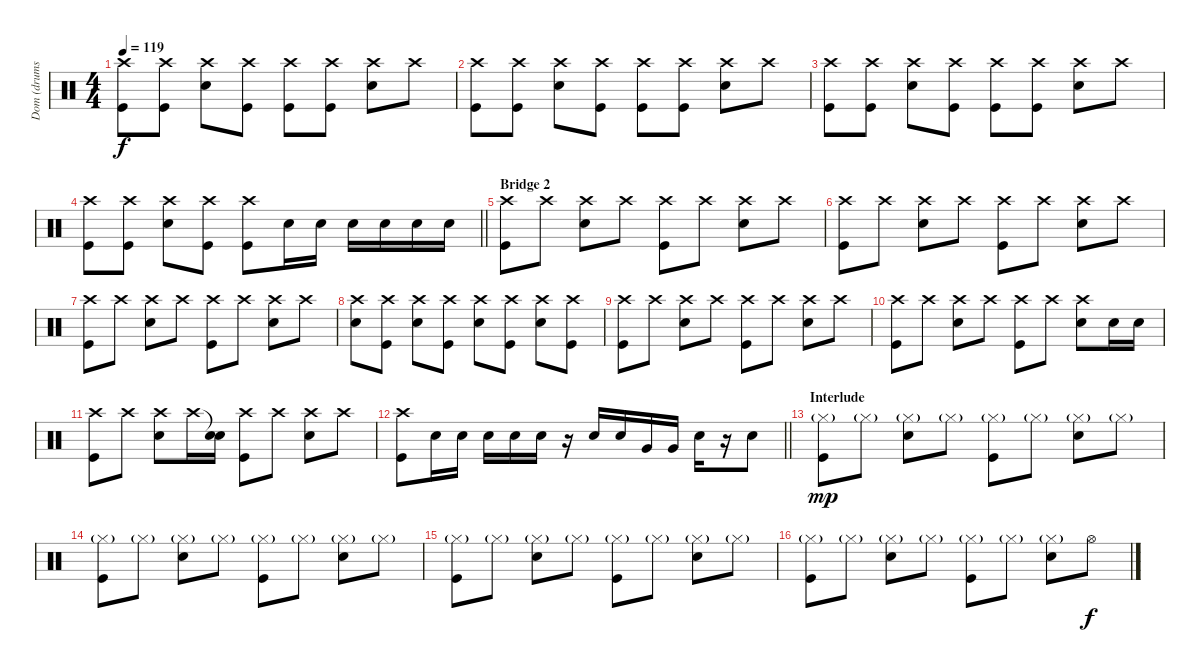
\track ("Dom (drums)" "Dom (drums") {instrument percussion}
\staff {score}
\articulation defaults
\ts (4 4)
\tempo 119
\clef neutral
\ks c
("Crash high (hit)" "Kick (hit)").8{dy f} ("Crash high (hit)" "Kick (hit)").8 ("Crash high (hit)" "Snare (hit) 2").8 ("Crash high (hit)" "Kick (hit)").8 ("Crash high (hit)" "Kick (hit)").8 ("Crash high (hit)" "Kick (hit)").8 ("Crash high (hit)" "Snare (hit) 2").8 "Crash high (hit)".8 |
("Crash high (hit)" "Kick (hit)").8 ("Crash high (hit)" "Kick (hit)").8 ("Crash high (hit)" "Snare (hit) 2").8 ("Crash high (hit)" "Kick (hit)").8 ("Crash high (hit)" "Kick (hit)").8 ("Crash high (hit)" "Kick (hit)").8 ("Crash high (hit)" "Snare (hit) 2").8 "Crash high (hit)".8 |
("Crash high (hit)" "Kick (hit)").8 ("Crash high (hit)" "Kick (hit)").8 ("Crash high (hit)" "Snare (hit) 2").8 ("Crash high (hit)" "Kick (hit)").8 ("Crash high (hit)" "Kick (hit)").8 ("Crash high (hit)" "Kick (hit)").8 ("Crash high (hit)" "Snare (hit) 2").8 "Crash high (hit)".8 |
\barLineRight lightlight
("Crash high (hit)" "Kick (hit)").8 ("Crash high (hit)" "Kick (hit)").8 ("Crash high (hit)" "Snare (hit) 2").8 ("Crash high (hit)" "Kick (hit)").8 ("Crash high (hit)" "Kick (hit)").8 "Snare (hit) 2".16 "Snare (hit) 2".16 "Snare (hit) 2".16 "Snare (hit) 2".16 "Snare (hit) 2".16 "Snare (hit) 2".16 |
\section ("" "Bridge 2")
("Crash high (hit)" "Kick (hit)").8 "Crash high (hit)".8 ("Crash high (hit)" "Snare (hit) 2").8 "Crash high (hit)".8 ("Crash high (hit)" "Kick (hit)").8 "Crash high (hit)".8 ("Crash high (hit)" "Snare (hit) 2").8 "Crash high (hit)".8 |
("Crash high (hit)" "Kick (hit)").8 "Crash high (hit)".8 ("Crash high (hit)" "Snare (hit) 2").8 "Crash high (hit)".8 ("Crash high (hit)" "Kick (hit)").8 "Crash high (hit)".8 ("Crash high (hit)" "Snare (hit) 2").8 "Crash high (hit)".8 |
("Crash high (hit)" "Kick (hit)").8 "Crash high (hit)".8 ("Crash high (hit)" "Snare (hit) 2").8 "Crash high (hit)".8 ("Crash high (hit)" "Kick (hit)").8 "Crash high (hit)".8 ("Crash high (hit)" "Snare (hit) 2").8 "Crash high (hit)".8 |
("Crash high (hit)" "Snare (hit) 2").8 ("Crash high (hit)" "Kick (hit)").8 ("Crash high (hit)" "Snare (hit) 2").8 ("Crash high (hit)" "Kick (hit)").8 ("Crash high (hit)" "Snare (hit) 2").8 ("Crash high (hit)" "Kick (hit)").8 ("Crash high (hit)" "Snare (hit) 2").8 ("Crash high (hit)" "Kick (hit)").8 |
("Crash high (hit)" "Kick (hit)").8 "Crash high (hit)".8 ("Crash high (hit)" "Snare (hit) 2").8 "Crash high (hit)".8 ("Crash high (hit)" "Kick (hit)").8 "Crash high (hit)".8 ("Crash high (hit)" "Snare (hit) 2").8 "Crash high (hit)".8 |
("Crash high (hit)" "Kick (hit)").8 "Crash high (hit)".8 ("Crash high (hit)" "Snare (hit) 2").8 "Crash high (hit)".8 ("Crash high (hit)" "Kick (hit)").8 "Crash high (hit)".8 ("Crash high (hit)" "Snare (hit) 2").8 "Snare (hit) 2".16 "Snare (hit) 2".16 |
("Crash high (hit)" "Kick (hit)").8 "Crash high (hit)".8 ("Crash high (hit)" "Snare (hit) 2").8 "Crash high (hit)".16 ("Snare (hit)"{t} "Snare (hit) 2").16 ("Crash high (hit)" "Kick (hit)").8 "Crash high (hit)".8 ("Crash high (hit)" "Snare (hit) 2").8 "Crash high (hit)".8 |
\barLineRight lightlight
("Crash high (hit)" "Kick (hit)").8 "Snare (hit) 2".16 "Snare (hit) 2".16 "Snare (hit) 2".16 "Snare (hit) 2".16 "Snare (hit) 2".16 r.16 "Snare (hit) 2".16 "Snare (hit) 2".16 "Very Low Tom (hit)".16 "Very Low Tom (hit)".16 "Snare (hit) 2".16 r.16 "Snare (hit) 2".8 |
\section ("" "Interlude")
("Hi-Hat (closed)"{g} "Kick (hit)").8{dy mp} "Hi-Hat (closed)"{g}.8 ("Hi-Hat (closed)"{g} "Snare (hit) 2").8 "Hi-Hat (closed)"{g}.8 ("Hi-Hat (closed)"{g} "Kick (hit)").8 "Hi-Hat (closed)"{g}.8 ("Hi-Hat (closed)"{g} "Snare (hit) 2").8 "Hi-Hat (closed)"{g}.8 |
("Hi-Hat (closed)"{g} "Kick (hit)").8 "Hi-Hat (closed)"{g}.8 ("Hi-Hat (closed)"{g} "Snare (hit) 2").8 "Hi-Hat (closed)"{g}.8 ("Hi-Hat (closed)"{g} "Kick (hit)").8 "Hi-Hat (closed)"{g}.8 ("Hi-Hat (closed)"{g} "Snare (hit) 2").8 "Hi-Hat (closed)"{g}.8 |
("Hi-Hat (closed)"{g} "Kick (hit)").8 "Hi-Hat (closed)"{g}.8 ("Hi-Hat (closed)"{g} "Snare (hit) 2").8 "Hi-Hat (closed)"{g}.8 ("Hi-Hat (closed)"{g} "Kick (hit)").8 "Hi-Hat (closed)"{g}.8 ("Hi-Hat (closed)"{g} "Snare (hit) 2").8 "Hi-Hat (closed)"{g}.8 |
("Hi-Hat (closed)"{g} "Kick (hit)").8 "Hi-Hat (closed)"{g}.8 ("Hi-Hat (closed)"{g} "Snare (hit) 2").8 "Hi-Hat (closed)"{g}.8 ("Hi-Hat (closed)"{g} "Kick (hit)").8 "Hi-Hat (closed)"{g}.8 ("Hi-Hat (closed)"{g} "Snare (hit) 2").8 "Hi-Hat (open)".8{dy f}
